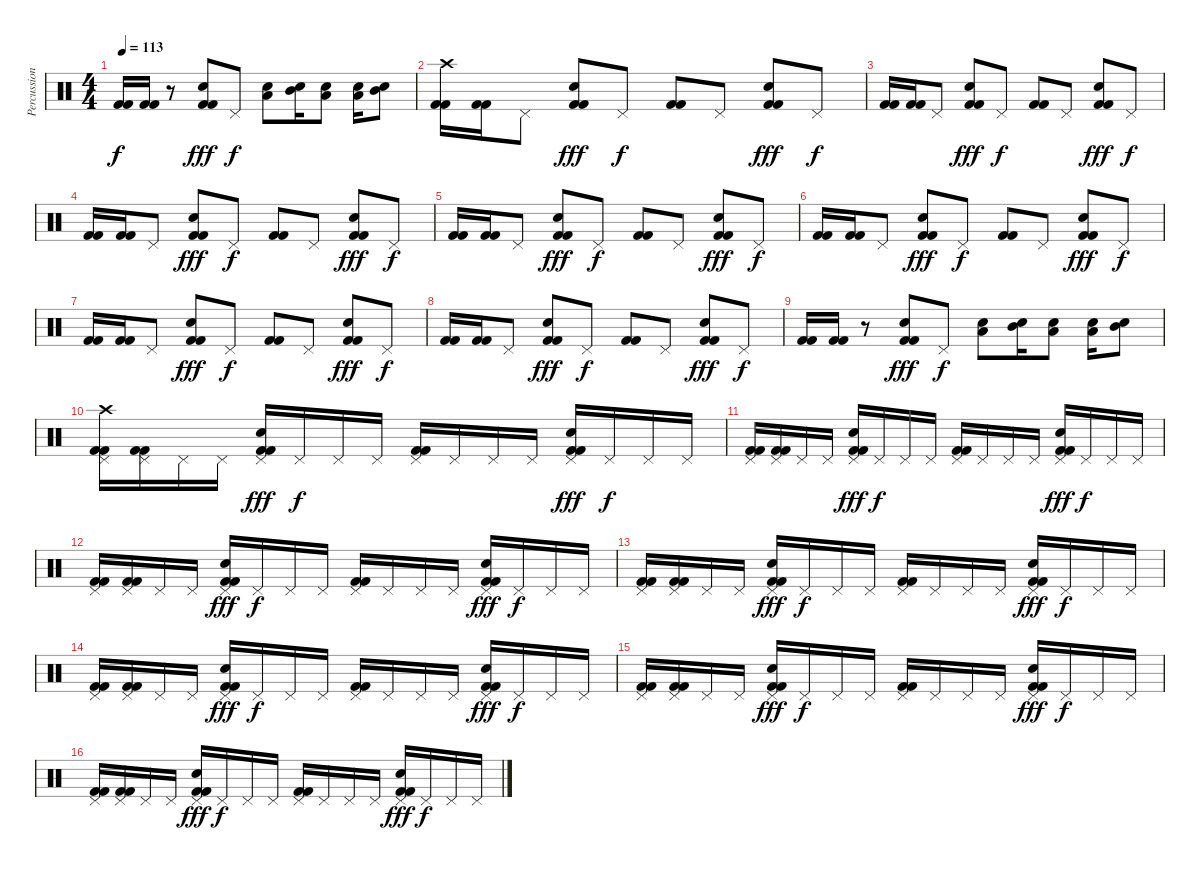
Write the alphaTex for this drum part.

\track ("Percussion" "Percussion") {instrument percussion}
\staff {score}
\articulation defaults
\ts (4 4)
\tempo 113
\clef neutral
\ks c
("Kick (hit) 2" "Kick (hit) 2").16{dy f} ("Kick (hit) 2" "Kick (hit) 2").16 r.8 ("Electric Snare (hit)" "Kick (hit) 2" "Kick (hit) 2").8{dy fff} "Pedal Hi-Hat (hit)".8{dy f} ("Electric Snare (hit)" "Low Tom (hit)").8 ("Electric Snare (hit)" "Mid Tom (hit)").16 ("Electric Snare (hit)" "Low Tom (hit)").8 ("Electric Snare (hit)" "Low Tom (hit)").16 ("Electric Snare (hit)" "Mid Tom (hit)").8 |
("Crash high (hit)" "Kick (hit) 2" "Kick (hit) 2").16 ("Kick (hit) 2" "Kick (hit) 2").16 "Pedal Hi-Hat (hit)".8 ("Electric Snare (hit)" "Kick (hit) 2" "Kick (hit) 2").8{dy fff} "Pedal Hi-Hat (hit)".8{dy f} ("Kick (hit) 2" "Kick (hit) 2").8 "Pedal Hi-Hat (hit)".8 ("Electric Snare (hit)" "Kick (hit) 2" "Kick (hit) 2").8{dy fff} "Pedal Hi-Hat (hit)".8{dy f} |
("Kick (hit) 2" "Kick (hit) 2").16 ("Kick (hit) 2" "Kick (hit) 2").16 "Pedal Hi-Hat (hit)".8 ("Electric Snare (hit)" "Kick (hit) 2" "Kick (hit) 2").8{dy fff} "Pedal Hi-Hat (hit)".8{dy f} ("Kick (hit) 2" "Kick (hit) 2").8 "Pedal Hi-Hat (hit)".8 ("Electric Snare (hit)" "Kick (hit) 2" "Kick (hit) 2").8{dy fff} "Pedal Hi-Hat (hit)".8{dy f} |
("Kick (hit) 2" "Kick (hit) 2").16 ("Kick (hit) 2" "Kick (hit) 2").16 "Pedal Hi-Hat (hit)".8 ("Electric Snare (hit)" "Kick (hit) 2" "Kick (hit) 2").8{dy fff} "Pedal Hi-Hat (hit)".8{dy f} ("Kick (hit) 2" "Kick (hit) 2").8 "Pedal Hi-Hat (hit)".8 ("Electric Snare (hit)" "Kick (hit) 2" "Kick (hit) 2").8{dy fff} "Pedal Hi-Hat (hit)".8{dy f} |
("Kick (hit) 2" "Kick (hit) 2").16 ("Kick (hit) 2" "Kick (hit) 2").16 "Pedal Hi-Hat (hit)".8 ("Electric Snare (hit)" "Kick (hit) 2" "Kick (hit) 2").8{dy fff} "Pedal Hi-Hat (hit)".8{dy f} ("Kick (hit) 2" "Kick (hit) 2").8 "Pedal Hi-Hat (hit)".8 ("Electric Snare (hit)" "Kick (hit) 2" "Kick (hit) 2").8{dy fff} "Pedal Hi-Hat (hit)".8{dy f} |
("Kick (hit) 2" "Kick (hit) 2").16 ("Kick (hit) 2" "Kick (hit) 2").16 "Pedal Hi-Hat (hit)".8 ("Electric Snare (hit)" "Kick (hit) 2" "Kick (hit) 2").8{dy fff} "Pedal Hi-Hat (hit)".8{dy f} ("Kick (hit) 2" "Kick (hit) 2").8 "Pedal Hi-Hat (hit)".8 ("Electric Snare (hit)" "Kick (hit) 2" "Kick (hit) 2").8{dy fff} "Pedal Hi-Hat (hit)".8{dy f} |
("Kick (hit) 2" "Kick (hit) 2").16 ("Kick (hit) 2" "Kick (hit) 2").16 "Pedal Hi-Hat (hit)".8 ("Electric Snare (hit)" "Kick (hit) 2" "Kick (hit) 2").8{dy fff} "Pedal Hi-Hat (hit)".8{dy f} ("Kick (hit) 2" "Kick (hit) 2").8 "Pedal Hi-Hat (hit)".8 ("Electric Snare (hit)" "Kick (hit) 2" "Kick (hit) 2").8{dy fff} "Pedal Hi-Hat (hit)".8{dy f} |
("Kick (hit) 2" "Kick (hit) 2").16 ("Kick (hit) 2" "Kick (hit) 2").16 "Pedal Hi-Hat (hit)".8 ("Electric Snare (hit)" "Kick (hit) 2" "Kick (hit) 2").8{dy fff} "Pedal Hi-Hat (hit)".8{dy f} ("Kick (hit) 2" "Kick (hit) 2").8 "Pedal Hi-Hat (hit)".8 ("Electric Snare (hit)" "Kick (hit) 2" "Kick (hit) 2").8{dy fff} "Pedal Hi-Hat (hit)".8{dy f} |
("Kick (hit) 2" "Kick (hit) 2").16 ("Kick (hit) 2" "Kick (hit) 2").16 r.8 ("Electric Snare (hit)" "Kick (hit) 2" "Kick (hit) 2").8{dy fff} "Pedal Hi-Hat (hit)".8{dy f} ("Electric Snare (hit)" "Low Tom (hit)").8 ("Electric Snare (hit)" "Mid Tom (hit)").16 ("Electric Snare (hit)" "Low Tom (hit)").8 ("Electric Snare (hit)" "Low Tom (hit)").16 ("Electric Snare (hit)" "Mid Tom (hit)").8 |
("Pedal Hi-Hat (hit)" "Crash high (hit)" "Kick (hit) 2" "Kick (hit) 2").16 ("Pedal Hi-Hat (hit)" "Kick (hit) 2" "Kick (hit) 2").16 "Pedal Hi-Hat (hit)".16 "Pedal Hi-Hat (hit)".16 ("Pedal Hi-Hat (hit)" "Electric Snare (hit)" "Kick (hit) 2" "Kick (hit) 2").16{dy fff} "Pedal Hi-Hat (hit)".16{dy f} "Pedal Hi-Hat (hit)".16 "Pedal Hi-Hat (hit)".16 ("Pedal Hi-Hat (hit)" "Kick (hit) 2" "Kick (hit) 2").16 "Pedal Hi-Hat (hit)".16 "Pedal Hi-Hat (hit)".16 "Pedal Hi-Hat (hit)".16 ("Pedal Hi-Hat (hit)" "Electric Snare (hit)" "Kick (hit) 2" "Kick (hit) 2").16{dy fff} "Pedal Hi-Hat (hit)".16{dy f} "Pedal Hi-Hat (hit)".16 "Pedal Hi-Hat (hit)".16 |
("Pedal Hi-Hat (hit)" "Kick (hit) 2" "Kick (hit) 2").16 ("Pedal Hi-Hat (hit)" "Kick (hit) 2" "Kick (hit) 2").16 "Pedal Hi-Hat (hit)".16 "Pedal Hi-Hat (hit)".16 ("Pedal Hi-Hat (hit)" "Electric Snare (hit)" "Kick (hit) 2" "Kick (hit) 2").16{dy fff} "Pedal Hi-Hat (hit)".16{dy f} "Pedal Hi-Hat (hit)".16 "Pedal Hi-Hat (hit)".16 ("Pedal Hi-Hat (hit)" "Kick (hit) 2" "Kick (hit) 2").16 "Pedal Hi-Hat (hit)".16 "Pedal Hi-Hat (hit)".16 "Pedal Hi-Hat (hit)".16 ("Pedal Hi-Hat (hit)" "Electric Snare (hit)" "Kick (hit) 2" "Kick (hit) 2").16{dy fff} "Pedal Hi-Hat (hit)".16{dy f} "Pedal Hi-Hat (hit)".16 "Pedal Hi-Hat (hit)".16 |
("Pedal Hi-Hat (hit)" "Kick (hit) 2" "Kick (hit) 2").16 ("Pedal Hi-Hat (hit)" "Kick (hit) 2" "Kick (hit) 2").16 "Pedal Hi-Hat (hit)".16 "Pedal Hi-Hat (hit)".16 ("Pedal Hi-Hat (hit)" "Electric Snare (hit)" "Kick (hit) 2" "Kick (hit) 2").16{dy fff} "Pedal Hi-Hat (hit)".16{dy f} "Pedal Hi-Hat (hit)".16 "Pedal Hi-Hat (hit)".16 ("Pedal Hi-Hat (hit)" "Kick (hit) 2" "Kick (hit) 2").16 "Pedal Hi-Hat (hit)".16 "Pedal Hi-Hat (hit)".16 "Pedal Hi-Hat (hit)".16 ("Pedal Hi-Hat (hit)" "Electric Snare (hit)" "Kick (hit) 2" "Kick (hit) 2").16{dy fff} "Pedal Hi-Hat (hit)".16{dy f} "Pedal Hi-Hat (hit)".16 "Pedal Hi-Hat (hit)".16 |
("Pedal Hi-Hat (hit)" "Kick (hit) 2" "Kick (hit) 2").16 ("Pedal Hi-Hat (hit)" "Kick (hit) 2" "Kick (hit) 2").16 "Pedal Hi-Hat (hit)".16 "Pedal Hi-Hat (hit)".16 ("Pedal Hi-Hat (hit)" "Electric Snare (hit)" "Kick (hit) 2" "Kick (hit) 2").16{dy fff} "Pedal Hi-Hat (hit)".16{dy f} "Pedal Hi-Hat (hit)".16 "Pedal Hi-Hat (hit)".16 ("Pedal Hi-Hat (hit)" "Kick (hit) 2" "Kick (hit) 2").16 "Pedal Hi-Hat (hit)".16 "Pedal Hi-Hat (hit)".16 "Pedal Hi-Hat (hit)".16 ("Pedal Hi-Hat (hit)" "Electric Snare (hit)" "Kick (hit) 2" "Kick (hit) 2").16{dy fff} "Pedal Hi-Hat (hit)".16{dy f} "Pedal Hi-Hat (hit)".16 "Pedal Hi-Hat (hit)".16 |
("Pedal Hi-Hat (hit)" "Kick (hit) 2" "Kick (hit) 2").16 ("Pedal Hi-Hat (hit)" "Kick (hit) 2" "Kick (hit) 2").16 "Pedal Hi-Hat (hit)".16 "Pedal Hi-Hat (hit)".16 ("Pedal Hi-Hat (hit)" "Electric Snare (hit)" "Kick (hit) 2" "Kick (hit) 2").16{dy fff} "Pedal Hi-Hat (hit)".16{dy f} "Pedal Hi-Hat (hit)".16 "Pedal Hi-Hat (hit)".16 ("Pedal Hi-Hat (hit)" "Kick (hit) 2" "Kick (hit) 2").16 "Pedal Hi-Hat (hit)".16 "Pedal Hi-Hat (hit)".16 "Pedal Hi-Hat (hit)".16 ("Pedal Hi-Hat (hit)" "Electric Snare (hit)" "Kick (hit) 2" "Kick (hit) 2").16{dy fff} "Pedal Hi-Hat (hit)".16{dy f} "Pedal Hi-Hat (hit)".16 "Pedal Hi-Hat (hit)".16 |
("Pedal Hi-Hat (hit)" "Kick (hit) 2" "Kick (hit) 2").16 ("Pedal Hi-Hat (hit)" "Kick (hit) 2" "Kick (hit) 2").16 "Pedal Hi-Hat (hit)".16 "Pedal Hi-Hat (hit)".16 ("Pedal Hi-Hat (hit)" "Electric Snare (hit)" "Kick (hit) 2" "Kick (hit) 2").16{dy fff} "Pedal Hi-Hat (hit)".16{dy f} "Pedal Hi-Hat (hit)".16 "Pedal Hi-Hat (hit)".16 ("Pedal Hi-Hat (hit)" "Kick (hit) 2" "Kick (hit) 2").16 "Pedal Hi-Hat (hit)".16 "Pedal Hi-Hat (hit)".16 "Pedal Hi-Hat (hit)".16 ("Pedal Hi-Hat (hit)" "Electric Snare (hit)" "Kick (hit) 2" "Kick (hit) 2").16{dy fff} "Pedal Hi-Hat (hit)".16{dy f} "Pedal Hi-Hat (hit)".16 "Pedal Hi-Hat (hit)".16 |
("Pedal Hi-Hat (hit)" "Kick (hit) 2" "Kick (hit) 2").16 ("Pedal Hi-Hat (hit)" "Kick (hit) 2" "Kick (hit) 2").16 "Pedal Hi-Hat (hit)".16 "Pedal Hi-Hat (hit)".16 ("Pedal Hi-Hat (hit)" "Electric Snare (hit)" "Kick (hit) 2" "Kick (hit) 2").16{dy fff} "Pedal Hi-Hat (hit)".16{dy f} "Pedal Hi-Hat (hit)".16 "Pedal Hi-Hat (hit)".16 ("Pedal Hi-Hat (hit)" "Kick (hit) 2" "Kick (hit) 2").16 "Pedal Hi-Hat (hit)".16 "Pedal Hi-Hat (hit)".16 "Pedal Hi-Hat (hit)".16 ("Pedal Hi-Hat (hit)" "Electric Snare (hit)" "Kick (hit) 2" "Kick (hit) 2").16{dy fff} "Pedal Hi-Hat (hit)".16{dy f} "Pedal Hi-Hat (hit)".16 "Pedal Hi-Hat (hit)".16
